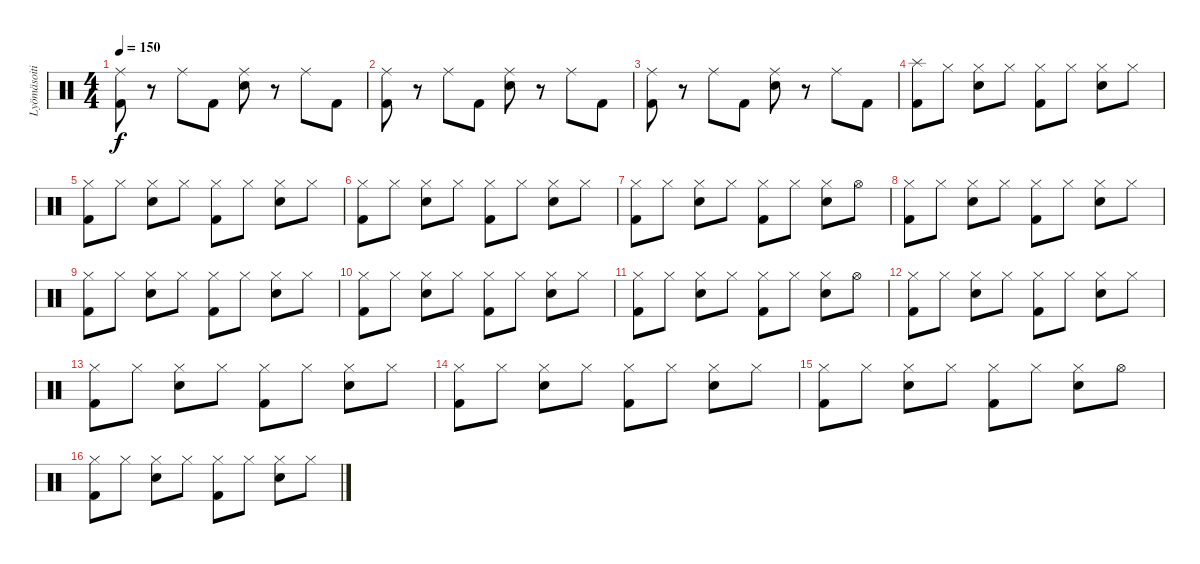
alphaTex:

\track ("Lyömäsoitin" "Lyömäsoiti") {instrument percussion}
\staff {score}
\articulation defaults
\ts (4 4)
\tempo 150
\clef neutral
\ks c
("Ride (middle)" "Kick (hit) 2").8{dy f} r.8 "Ride (middle)".8 "Kick (hit) 2".8 ("Ride (middle)" "Electric Snare (hit)").8 r.8 "Ride (middle)".8 "Kick (hit) 2".8 |
("Ride (middle)" "Kick (hit) 2").8 r.8 "Ride (middle)".8 "Kick (hit) 2".8 ("Ride (middle)" "Electric Snare (hit)").8 r.8 "Ride (middle)".8 "Kick (hit) 2".8 |
("Ride (middle)" "Kick (hit) 2").8 r.8 "Ride (middle)".8 "Kick (hit) 2".8 ("Ride (middle)" "Electric Snare (hit)").8 r.8 "Ride (middle)".8 "Kick (hit) 2".8 |
("Splash (hit)" "Kick (hit) 2").8 "Hi-Hat (closed)".8 ("Hi-Hat (closed)" "Electric Snare (hit)").8 "Hi-Hat (closed)".8 ("Hi-Hat (closed)" "Kick (hit) 2").8 "Hi-Hat (closed)".8 ("Hi-Hat (closed)" "Electric Snare (hit)").8 "Hi-Hat (closed)".8 |
("Hi-Hat (closed)" "Kick (hit) 2").8 "Hi-Hat (closed)".8 ("Hi-Hat (closed)" "Electric Snare (hit)").8 "Hi-Hat (closed)".8 ("Hi-Hat (closed)" "Kick (hit) 2").8 "Hi-Hat (closed)".8 ("Hi-Hat (closed)" "Electric Snare (hit)").8 "Hi-Hat (closed)".8 |
("Hi-Hat (closed)" "Kick (hit) 2").8 "Hi-Hat (closed)".8 ("Hi-Hat (closed)" "Electric Snare (hit)").8 "Hi-Hat (closed)".8 ("Hi-Hat (closed)" "Kick (hit) 2").8 "Hi-Hat (closed)".8 ("Hi-Hat (closed)" "Electric Snare (hit)").8 "Hi-Hat (closed)".8 |
("Hi-Hat (closed)" "Kick (hit) 2").8 "Hi-Hat (closed)".8 ("Hi-Hat (closed)" "Electric Snare (hit)").8 "Hi-Hat (closed)".8 ("Hi-Hat (closed)" "Kick (hit) 2").8 "Hi-Hat (closed)".8 ("Hi-Hat (closed)" "Electric Snare (hit)").8 "Hi-Hat (open)".8 |
("Hi-Hat (closed)" "Kick (hit) 2").8 "Hi-Hat (closed)".8 ("Hi-Hat (closed)" "Electric Snare (hit)").8 "Hi-Hat (closed)".8 ("Hi-Hat (closed)" "Kick (hit) 2").8 "Hi-Hat (closed)".8 ("Hi-Hat (closed)" "Electric Snare (hit)").8 "Hi-Hat (closed)".8 |
("Hi-Hat (closed)" "Kick (hit) 2").8 "Hi-Hat (closed)".8 ("Hi-Hat (closed)" "Electric Snare (hit)").8 "Hi-Hat (closed)".8 ("Hi-Hat (closed)" "Kick (hit) 2").8 "Hi-Hat (closed)".8 ("Hi-Hat (closed)" "Electric Snare (hit)").8 "Hi-Hat (closed)".8 |
("Hi-Hat (closed)" "Kick (hit) 2").8 "Hi-Hat (closed)".8 ("Hi-Hat (closed)" "Electric Snare (hit)").8 "Hi-Hat (closed)".8 ("Hi-Hat (closed)" "Kick (hit) 2").8 "Hi-Hat (closed)".8 ("Hi-Hat (closed)" "Electric Snare (hit)").8 "Hi-Hat (closed)".8 |
("Hi-Hat (closed)" "Kick (hit) 2").8 "Hi-Hat (closed)".8 ("Hi-Hat (closed)" "Electric Snare (hit)").8 "Hi-Hat (closed)".8 ("Hi-Hat (closed)" "Kick (hit) 2").8 "Hi-Hat (closed)".8 ("Hi-Hat (closed)" "Electric Snare (hit)").8 "Hi-Hat (open)".8 |
("Hi-Hat (closed)" "Kick (hit) 2").8 "Hi-Hat (closed)".8 ("Hi-Hat (closed)" "Electric Snare (hit)").8 "Hi-Hat (closed)".8 ("Hi-Hat (closed)" "Kick (hit) 2").8 "Hi-Hat (closed)".8 ("Hi-Hat (closed)" "Electric Snare (hit)").8 "Hi-Hat (closed)".8 |
("Hi-Hat (closed)" "Kick (hit) 2").8 "Hi-Hat (closed)".8 ("Hi-Hat (closed)" "Electric Snare (hit)").8 "Hi-Hat (closed)".8 ("Hi-Hat (closed)" "Kick (hit) 2").8 "Hi-Hat (closed)".8 ("Hi-Hat (closed)" "Electric Snare (hit)").8 "Hi-Hat (closed)".8 |
("Hi-Hat (closed)" "Kick (hit) 2").8 "Hi-Hat (closed)".8 ("Hi-Hat (closed)" "Electric Snare (hit)").8 "Hi-Hat (closed)".8 ("Hi-Hat (closed)" "Kick (hit) 2").8 "Hi-Hat (closed)".8 ("Hi-Hat (closed)" "Electric Snare (hit)").8 "Hi-Hat (closed)".8 |
("Hi-Hat (closed)" "Kick (hit) 2").8 "Hi-Hat (closed)".8 ("Hi-Hat (closed)" "Electric Snare (hit)").8 "Hi-Hat (closed)".8 ("Hi-Hat (closed)" "Kick (hit) 2").8 "Hi-Hat (closed)".8 ("Hi-Hat (closed)" "Electric Snare (hit)").8 "Hi-Hat (open)".8 |
("Hi-Hat (closed)" "Kick (hit) 2").8 "Hi-Hat (closed)".8 ("Hi-Hat (closed)" "Electric Snare (hit)").8 "Hi-Hat (closed)".8 ("Hi-Hat (closed)" "Kick (hit) 2").8 "Hi-Hat (closed)".8 ("Hi-Hat (closed)" "Electric Snare (hit)").8 "Hi-Hat (closed)".8
